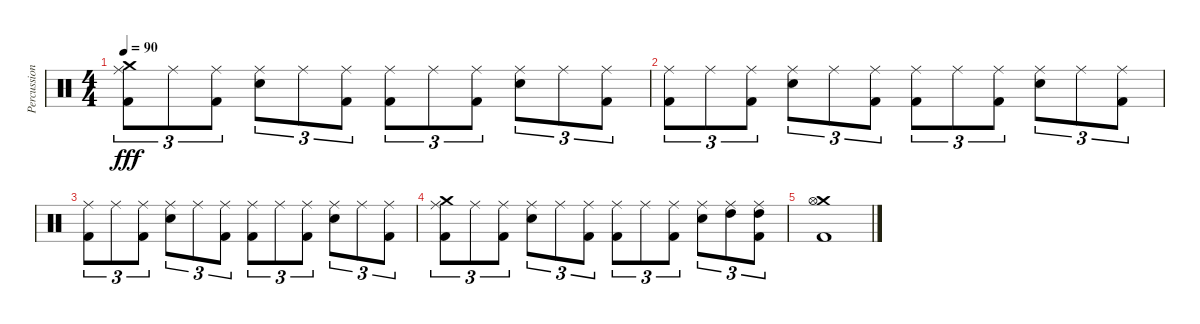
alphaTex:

\track ("Percussion" "Percussion") {instrument percussion}
\staff {score}
\articulation defaults
\ts (4 4)
\tempo 90
\clef neutral
\ks c
("Ride (middle)" "Crash medium (hit)" "Kick (hit) 2").8{tu (3 2) dy fff} "Ride (middle)".8{tu (3 2)} ("Ride (middle)" "Kick (hit) 2").8{tu (3 2)} ("Ride (middle)" "Electric Snare (hit)").8{tu (3 2)} "Ride (middle)".8{tu (3 2)} ("Ride (middle)" "Kick (hit) 2").8{tu (3 2)} ("Ride (middle)" "Kick (hit) 2").8{tu (3 2)} "Ride (middle)".8{tu (3 2)} ("Ride (middle)" "Kick (hit) 2").8{tu (3 2)} ("Ride (middle)" "Electric Snare (hit)").8{tu (3 2)} "Ride (middle)".8{tu (3 2)} ("Ride (middle)" "Kick (hit) 2").8{tu (3 2)} |
("Ride (middle)" "Kick (hit) 2").8{tu (3 2)} "Ride (middle)".8{tu (3 2)} ("Ride (middle)" "Kick (hit) 2").8{tu (3 2)} ("Ride (middle)" "Electric Snare (hit)").8{tu (3 2)} "Ride (middle)".8{tu (3 2)} ("Ride (middle)" "Kick (hit) 2").8{tu (3 2)} ("Ride (middle)" "Kick (hit) 2").8{tu (3 2)} "Ride (middle)".8{tu (3 2)} ("Ride (middle)" "Kick (hit) 2").8{tu (3 2)} ("Ride (middle)" "Electric Snare (hit)").8{tu (3 2)} "Ride (middle)".8{tu (3 2)} ("Ride (middle)" "Kick (hit) 2").8{tu (3 2)} |
("Ride (middle)" "Kick (hit) 2").8{tu (3 2)} "Ride (middle)".8{tu (3 2)} ("Ride (middle)" "Kick (hit) 2").8{tu (3 2)} ("Ride (middle)" "Electric Snare (hit)").8{tu (3 2)} "Ride (middle)".8{tu (3 2)} ("Ride (middle)" "Kick (hit) 2").8{tu (3 2)} ("Ride (middle)" "Kick (hit) 2").8{tu (3 2)} "Ride (middle)".8{tu (3 2)} ("Ride (middle)" "Kick (hit) 2").8{tu (3 2)} ("Ride (middle)" "Electric Snare (hit)").8{tu (3 2)} "Ride (middle)".8{tu (3 2)} ("Ride (middle)" "Kick (hit) 2").8{tu (3 2)} |
("Ride (middle)" "Crash medium (hit)" "Kick (hit) 2").8{tu (3 2)} "Ride (middle)".8{tu (3 2)} ("Ride (middle)" "Kick (hit) 2").8{tu (3 2)} ("Ride (middle)" "Electric Snare (hit)").8{tu (3 2)} "Ride (middle)".8{tu (3 2)} ("Ride (middle)" "Kick (hit) 2").8{tu (3 2)} ("Ride (middle)" "Kick (hit) 2").8{tu (3 2)} "Ride (middle)".8{tu (3 2)} ("Ride (middle)" "Kick (hit) 2").8{tu (3 2)} ("Ride (middle)" "Electric Snare (hit)").8{tu (3 2)} ("Ride (middle)" "High Tom (hit)").8{tu (3 2)} ("Ride (middle)" "High Tom (hit)" "Kick (hit) 2").8{tu (3 2)} |
("Crash medium (hit)" "Hi-Hat (open)" "Kick (hit) 2").1
